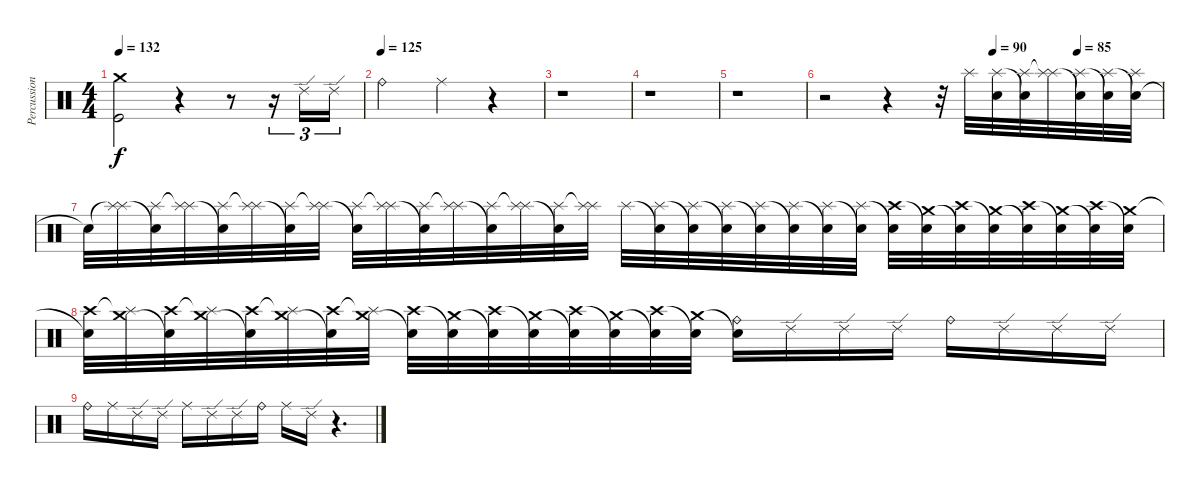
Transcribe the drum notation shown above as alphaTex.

\track ("Percussion" "Percussion") {instrument percussion}
\staff {score}
\articulation defaults
\ts (4 4)
\tempo 132
\clef neutral
\ks c
("Crash medium (hit)" "Kick (hit)").2{dy f} r.4 r.8 r.16{tu (3 2)} "Ride (edge) 2".16{tu (3 2)} "Ride (edge) 2".16{tu (3 2)} |
\tempo (125)
"Ride (bell)".2 "Ride (middle)".4 r.4 |
r.1 |
r.1 |
r.1 |
\tempo (90 0.5)
\tempo (85 0.75)
r.2 r.4 r.32 "Splash (hit)".32{volume 1} ("Splash (hit)" "Snare (hit)").32 ("Snare (hit)"{t} "Splash (hit)").32{volume 3} ("Splash (hit)" "Splash (hit)"{t}).32 ("Snare (hit)"{t} "Splash (hit)").32 ("Splash (hit)" "Snare (hit)"{t}).32 ("Snare (hit)"{t} "Splash (hit)").32 |
"Snare (hit)"{t}.32{volume 4} ("Splash (hit)"{t} "Splash (hit)").32 ("Splash (hit)" "Snare (hit)"{t}).32 ("Splash (hit)"{t} "Splash (hit)").32 ("Splash (hit)" "Snare (hit)"{t}).32{volume 5} ("Splash (hit)"{t} "Splash (hit)").32 ("Splash (hit)" "Snare (hit)"{t}).32 ("Splash (hit)"{t} "Splash (hit)").32 ("Splash (hit)" "Snare (hit)"{t}).32{volume 6} ("Splash (hit)"{t} "Splash (hit)").32 ("Splash (hit)" "Snare (hit)"{t}).32 ("Splash (hit)"{t} "Splash (hit)").32 ("Splash (hit)" "Snare (hit)"{t}).32{volume 6} ("Splash (hit)"{t} "Splash (hit)").32 ("Splash (hit)" "Snare (hit)"{t}).32 ("Splash (hit)"{t} "Splash (hit)").32 "Splash (hit)".32 ("Snare (hit)"{t} "Splash (hit)").32 ("Splash (hit)" "Snare (hit)"{t}).32 ("Snare (hit)"{t} "Splash (hit)").32 ("Splash (hit)" "Snare (hit)"{t}).32 ("Snare (hit)"{t} "Splash (hit)").32 ("Splash (hit)" "Snare (hit)"{t}).32 ("Snare (hit)"{t} "Splash (hit)").32 ("Crash high (hit)" "Snare (hit)"{t}).32 ("Snare (hit)"{t} "Crash medium (hit)").32 ("Crash high (hit)" "Snare (hit)"{t}).32 ("Snare (hit)"{t} "Crash medium (hit)").32 ("Crash high (hit)" "Snare (hit)"{t}).32 ("Snare (hit)"{t} "Crash medium (hit)").32 ("Crash high (hit)" "Snare (hit)"{t}).32 ("Snare (hit)"{t} "Crash medium (hit)").32 |
("Crash high (hit)" "Snare (hit)"{t}).32 ("Splash (hit)"{t} "Crash medium (hit)").32 ("Crash high (hit)" "Snare (hit)"{t}).32 ("Splash (hit)"{t} "Crash medium (hit)").32 ("Crash high (hit)" "Snare (hit)"{t}).32 ("Splash (hit)"{t} "Crash medium (hit)").32 ("Crash high (hit)" "Snare (hit)"{t}).32 ("Splash (hit)"{t} "Crash medium (hit)").32 ("Crash high (hit)" "Snare (hit)"{t}).32 ("Snare (hit)"{t} "Crash medium (hit)").32 ("Crash high (hit)" "Snare (hit)"{t}).32 ("Snare (hit)"{t} "Crash medium (hit)").32 ("Crash high (hit)" "Snare (hit)"{t}).32 ("Snare (hit)"{t} "Crash medium (hit)").32 ("Crash high (hit)" "Snare (hit)"{t}).32 ("Snare (hit)"{t} "Crash medium (hit)").32 ("Ride (bell)" "Snare (hit)"{t}).16{volume 0} "Ride (edge) 2".16 "Ride (edge) 2".16 "Ride (edge) 2".16 "Ride (bell)".16 "Ride (edge) 2".16 "Ride (edge) 2".16 "Ride (edge) 2".16 |
"Ride (bell)".16 "Ride (middle)".16 "Ride (edge) 2".16 "Ride (edge) 2".16 "Ride (middle)".16 "Ride (edge) 2".16 "Ride (edge) 2".16 "Ride (bell)".16 "Ride (middle)".16 "Ride (edge) 2".16 r.4{d}
